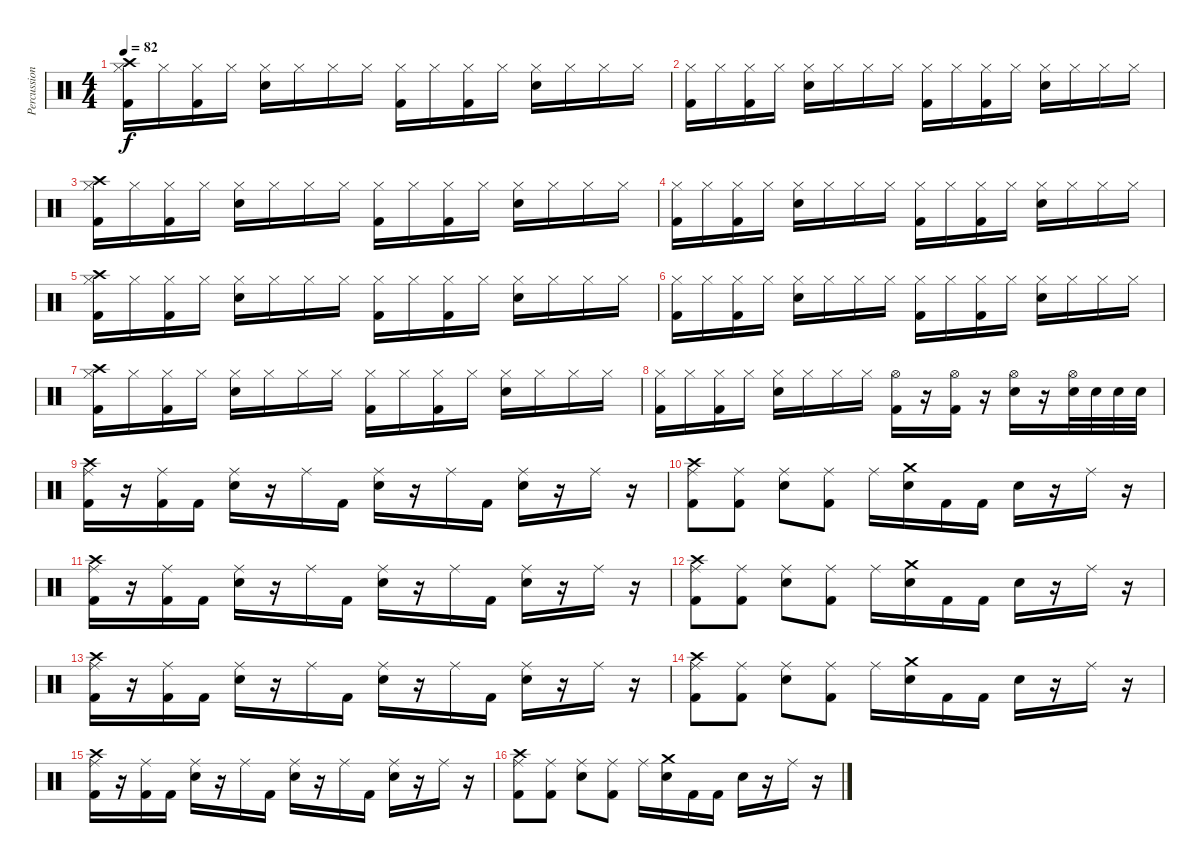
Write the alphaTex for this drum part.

\track ("Percussions" "Percussion") {instrument percussion}
\staff {score}
\articulation defaults
\ts (4 4)
\tempo 82
\clef neutral
\ks c
("Crash high (hit)" "Hi-Hat (closed)" "Kick (hit) 2").16{dy f} "Hi-Hat (closed)".16 ("Hi-Hat (closed)" "Kick (hit) 2").16 "Hi-Hat (closed)".16 ("Hi-Hat (closed)" "Electric Snare (hit)").16 "Hi-Hat (closed)".16 "Hi-Hat (closed)".16 "Hi-Hat (closed)".16 ("Hi-Hat (closed)" "Kick (hit) 2").16 "Hi-Hat (closed)".16 ("Hi-Hat (closed)" "Kick (hit) 2").16 "Hi-Hat (closed)".16 ("Hi-Hat (closed)" "Electric Snare (hit)").16 "Hi-Hat (closed)".16 "Hi-Hat (closed)".16 "Hi-Hat (closed)".16 |
("Hi-Hat (closed)" "Kick (hit) 2").16 "Hi-Hat (closed)".16 ("Hi-Hat (closed)" "Kick (hit) 2").16 "Hi-Hat (closed)".16 ("Hi-Hat (closed)" "Electric Snare (hit)").16 "Hi-Hat (closed)".16 "Hi-Hat (closed)".16 "Hi-Hat (closed)".16 ("Hi-Hat (closed)" "Kick (hit) 2").16 "Hi-Hat (closed)".16 ("Hi-Hat (closed)" "Kick (hit) 2").16 "Hi-Hat (closed)".16 ("Hi-Hat (closed)" "Electric Snare (hit)").16 "Hi-Hat (closed)".16 "Hi-Hat (closed)".16 "Hi-Hat (closed)".16 |
("Crash high (hit)" "Hi-Hat (closed)" "Kick (hit) 2").16 "Hi-Hat (closed)".16 ("Hi-Hat (closed)" "Kick (hit) 2").16 "Hi-Hat (closed)".16 ("Hi-Hat (closed)" "Electric Snare (hit)").16 "Hi-Hat (closed)".16 "Hi-Hat (closed)".16 "Hi-Hat (closed)".16 ("Hi-Hat (closed)" "Kick (hit) 2").16 "Hi-Hat (closed)".16 ("Hi-Hat (closed)" "Kick (hit) 2").16 "Hi-Hat (closed)".16 ("Hi-Hat (closed)" "Electric Snare (hit)").16 "Hi-Hat (closed)".16 "Hi-Hat (closed)".16 "Hi-Hat (closed)".16 |
("Hi-Hat (closed)" "Kick (hit) 2").16 "Hi-Hat (closed)".16 ("Hi-Hat (closed)" "Kick (hit) 2").16 "Hi-Hat (closed)".16 ("Hi-Hat (closed)" "Electric Snare (hit)").16 "Hi-Hat (closed)".16 "Hi-Hat (closed)".16 "Hi-Hat (closed)".16 ("Hi-Hat (closed)" "Kick (hit) 2").16 "Hi-Hat (closed)".16 ("Hi-Hat (closed)" "Kick (hit) 2").16 "Hi-Hat (closed)".16 ("Hi-Hat (closed)" "Electric Snare (hit)").16 "Hi-Hat (closed)".16 "Hi-Hat (closed)".16 "Hi-Hat (closed)".16 |
("Crash high (hit)" "Hi-Hat (closed)" "Kick (hit) 2").16 "Hi-Hat (closed)".16 ("Hi-Hat (closed)" "Kick (hit) 2").16 "Hi-Hat (closed)".16 ("Hi-Hat (closed)" "Electric Snare (hit)").16 "Hi-Hat (closed)".16 "Hi-Hat (closed)".16 "Hi-Hat (closed)".16 ("Hi-Hat (closed)" "Kick (hit) 2").16 "Hi-Hat (closed)".16 ("Hi-Hat (closed)" "Kick (hit) 2").16 "Hi-Hat (closed)".16 ("Hi-Hat (closed)" "Electric Snare (hit)").16 "Hi-Hat (closed)".16 "Hi-Hat (closed)".16 "Hi-Hat (closed)".16 |
("Hi-Hat (closed)" "Kick (hit) 2").16 "Hi-Hat (closed)".16 ("Hi-Hat (closed)" "Kick (hit) 2").16 "Hi-Hat (closed)".16 ("Hi-Hat (closed)" "Electric Snare (hit)").16 "Hi-Hat (closed)".16 "Hi-Hat (closed)".16 "Hi-Hat (closed)".16 ("Hi-Hat (closed)" "Kick (hit) 2").16 "Hi-Hat (closed)".16 ("Hi-Hat (closed)" "Kick (hit) 2").16 "Hi-Hat (closed)".16 ("Hi-Hat (closed)" "Electric Snare (hit)").16 "Hi-Hat (closed)".16 "Hi-Hat (closed)".16 "Hi-Hat (closed)".16 |
("Crash high (hit)" "Hi-Hat (closed)" "Kick (hit) 2").16 "Hi-Hat (closed)".16 ("Hi-Hat (closed)" "Kick (hit) 2").16 "Hi-Hat (closed)".16 ("Hi-Hat (closed)" "Electric Snare (hit)").16 "Hi-Hat (closed)".16 "Hi-Hat (closed)".16 "Hi-Hat (closed)".16 ("Hi-Hat (closed)" "Kick (hit) 2").16 "Hi-Hat (closed)".16 ("Hi-Hat (closed)" "Kick (hit) 2").16 "Hi-Hat (closed)".16 ("Hi-Hat (closed)" "Electric Snare (hit)").16 "Hi-Hat (closed)".16 "Hi-Hat (closed)".16 "Hi-Hat (closed)".16 |
("Hi-Hat (closed)" "Kick (hit) 2").16 "Hi-Hat (closed)".16 ("Hi-Hat (closed)" "Kick (hit) 2").16 "Hi-Hat (closed)".16 ("Hi-Hat (closed)" "Electric Snare (hit)").16 "Hi-Hat (closed)".16 "Hi-Hat (closed)".16 "Hi-Hat (closed)".16 ("Hi-Hat (open)" "Kick (hit) 2").16 r.16 ("Hi-Hat (open)" "Kick (hit) 2").16 r.16 ("Hi-Hat (open)" "Electric Snare (hit)").16 r.16 ("Hi-Hat (open)" "Electric Snare (hit)").32 "Electric Snare (hit)".32 "Electric Snare (hit)".32 "Electric Snare (hit)".32 |
("Crash high (hit)" "Ride (middle)" "Kick (hit) 2").16 r.16 ("Ride (middle)" "Kick (hit) 2").16 "Kick (hit) 2".16 ("Ride (middle)" "Electric Snare (hit)").16 r.16 "Ride (middle)".16 "Kick (hit) 2".16 ("Ride (middle)" "Electric Snare (hit)").16 r.16 "Ride (middle)".16 "Kick (hit) 2".16 ("Ride (middle)" "Electric Snare (hit)").16 r.16 "Ride (middle)".16 r.16 |
("Crash high (hit)" "Ride (middle)" "Kick (hit) 2").8 ("Ride (middle)" "Kick (hit) 2").8 ("Ride (middle)" "Electric Snare (hit)").8 ("Ride (middle)" "Kick (hit) 2").8 "Ride (middle)".16 ("Crash medium (hit)" "Electric Snare (hit)").16 "Kick (hit) 2".16 "Kick (hit) 2".16 "Electric Snare (hit)".16 r.16 "Ride (middle)".16 r.16 |
("Crash high (hit)" "Ride (middle)" "Kick (hit) 2").16 r.16 ("Ride (middle)" "Kick (hit) 2").16 "Kick (hit) 2".16 ("Ride (middle)" "Electric Snare (hit)").16 r.16 "Ride (middle)".16 "Kick (hit) 2".16 ("Ride (middle)" "Electric Snare (hit)").16 r.16 "Ride (middle)".16 "Kick (hit) 2".16 ("Ride (middle)" "Electric Snare (hit)").16 r.16 "Ride (middle)".16 r.16 |
("Crash high (hit)" "Ride (middle)" "Kick (hit) 2").8 ("Ride (middle)" "Kick (hit) 2").8 ("Ride (middle)" "Electric Snare (hit)").8 ("Ride (middle)" "Kick (hit) 2").8 "Ride (middle)".16 ("Crash medium (hit)" "Electric Snare (hit)").16 "Kick (hit) 2".16 "Kick (hit) 2".16 "Electric Snare (hit)".16 r.16 "Ride (middle)".16 r.16 |
("Crash high (hit)" "Ride (middle)" "Kick (hit) 2").16 r.16 ("Ride (middle)" "Kick (hit) 2").16 "Kick (hit) 2".16 ("Ride (middle)" "Electric Snare (hit)").16 r.16 "Ride (middle)".16 "Kick (hit) 2".16 ("Ride (middle)" "Electric Snare (hit)").16 r.16 "Ride (middle)".16 "Kick (hit) 2".16 ("Ride (middle)" "Electric Snare (hit)").16 r.16 "Ride (middle)".16 r.16 |
("Crash high (hit)" "Ride (middle)" "Kick (hit) 2").8 ("Ride (middle)" "Kick (hit) 2").8 ("Ride (middle)" "Electric Snare (hit)").8 ("Ride (middle)" "Kick (hit) 2").8 "Ride (middle)".16 ("Crash medium (hit)" "Electric Snare (hit)").16 "Kick (hit) 2".16 "Kick (hit) 2".16 "Electric Snare (hit)".16 r.16 "Ride (middle)".16 r.16 |
("Crash high (hit)" "Ride (middle)" "Kick (hit) 2").16 r.16 ("Ride (middle)" "Kick (hit) 2").16 "Kick (hit) 2".16 ("Ride (middle)" "Electric Snare (hit)").16 r.16 "Ride (middle)".16 "Kick (hit) 2".16 ("Ride (middle)" "Electric Snare (hit)").16 r.16 "Ride (middle)".16 "Kick (hit) 2".16 ("Ride (middle)" "Electric Snare (hit)").16 r.16 "Ride (middle)".16 r.16 |
("Crash high (hit)" "Ride (middle)" "Kick (hit) 2").8 ("Ride (middle)" "Kick (hit) 2").8 ("Ride (middle)" "Electric Snare (hit)").8 ("Ride (middle)" "Kick (hit) 2").8 "Ride (middle)".16 ("Crash medium (hit)" "Electric Snare (hit)").16 "Kick (hit) 2".16 "Kick (hit) 2".16 "Electric Snare (hit)".16 r.16 "Ride (middle)".16 r.16
